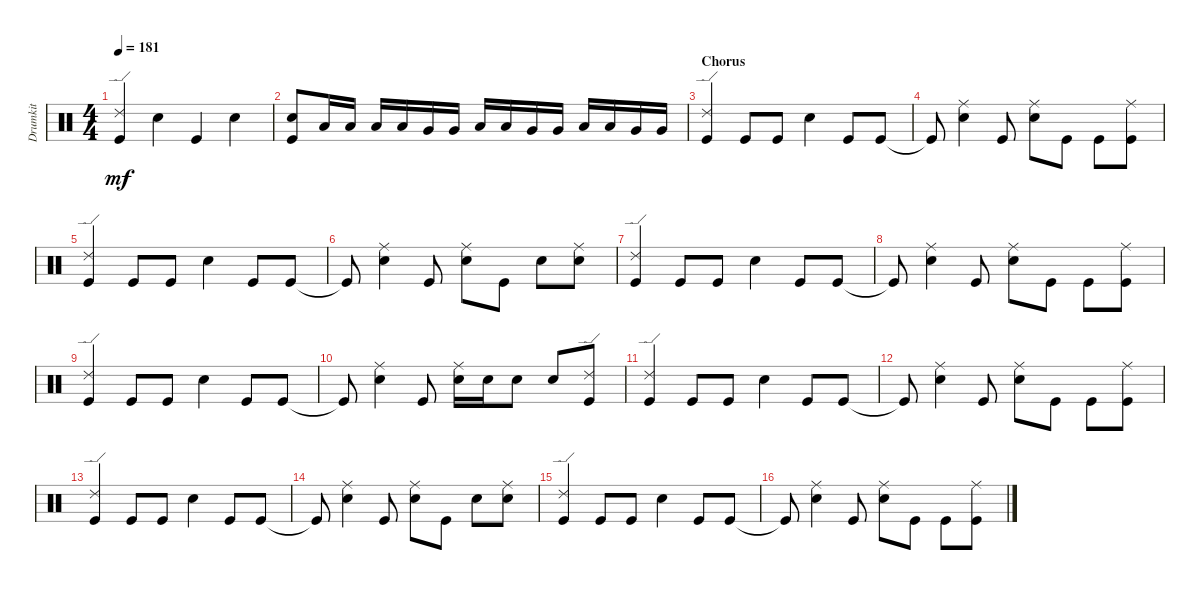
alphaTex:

\track ("Drumkit" "Drumkit") {instrument percussion}
\staff {score}
\articulation defaults
\ts (4 4)
\tempo 181
\clef neutral
\ks c
("Kick (hit)" "Ride (edge) 2").4{dy mf} "Snare (hit) 2".4 "Kick (hit)".4 "Snare (hit) 2".4 |
("Kick (hit)" "Snare (hit) 2").8 "Low Tom (hit)".16 "Low Tom (hit)".16 "Low Tom (hit)".16 "Low Tom (hit)".16 "Very Low Tom (hit)".16 "Very Low Tom (hit)".16 "Low Tom (hit)".16 "Low Tom (hit)".16 "Very Low Tom (hit)".16 "Very Low Tom (hit)".16 "Low Floor Tom (hit)".16 "Low Floor Tom (hit)".16 "Very Low Tom (hit)".16 "Very Low Tom (hit)".16 |
\section ("" "Chorus")
("Kick (hit)" "Ride (edge) 2").4 "Kick (hit)".8 "Kick (hit)".8 "Snare (hit) 2".4 "Kick (hit)".8 "Kick (hit)".8 |
"Kick (hit)"{t}.8 ("Snare (hit) 2" "Ride (middle)").4 "Kick (hit)".8 ("Snare (hit) 2" "Ride (middle)").8 "Kick (hit)".8 "Kick (hit)".8 ("Ride (middle)" "Kick (hit)").8 |
("Kick (hit)" "Ride (edge) 2").4 "Kick (hit)".8 "Kick (hit)".8 "Snare (hit) 2".4 "Kick (hit)".8 "Kick (hit)".8 |
"Kick (hit)"{t}.8 ("Snare (hit) 2" "Ride (middle)").4 "Kick (hit)".8 ("Snare (hit) 2" "Ride (middle)").8 "Kick (hit)".8 "Snare (hit) 2".8 ("Snare (hit) 2" "Ride (middle)").8 |
("Kick (hit)" "Ride (edge) 2").4 "Kick (hit)".8 "Kick (hit)".8 "Snare (hit) 2".4 "Kick (hit)".8 "Kick (hit)".8 |
"Kick (hit)"{t}.8 ("Snare (hit) 2" "Ride (middle)").4 "Kick (hit)".8 ("Snare (hit) 2" "Ride (middle)").8 "Kick (hit)".8 "Kick (hit)".8 ("Ride (middle)" "Kick (hit)").8 |
("Kick (hit)" "Ride (edge) 2").4 "Kick (hit)".8 "Kick (hit)".8 "Snare (hit) 2".4 "Kick (hit)".8 "Kick (hit)".8 |
"Kick (hit)"{t}.8 ("Snare (hit) 2" "Ride (middle)").4 "Kick (hit)".8 ("Snare (hit) 2" "Ride (middle)").16 "Snare (hit) 2".16 "Snare (hit) 2".8 "Snare (hit) 2".8 ("Kick (hit)" "Ride (edge) 2").8 |
("Kick (hit)" "Ride (edge) 2").4 "Kick (hit)".8 "Kick (hit)".8 "Snare (hit) 2".4 "Kick (hit)".8 "Kick (hit)".8 |
"Kick (hit)"{t}.8 ("Snare (hit) 2" "Ride (middle)").4 "Kick (hit)".8 ("Snare (hit) 2" "Ride (middle)").8 "Kick (hit)".8 "Kick (hit)".8 ("Ride (middle)" "Kick (hit)").8 |
("Kick (hit)" "Ride (edge) 2").4 "Kick (hit)".8 "Kick (hit)".8 "Snare (hit) 2".4 "Kick (hit)".8 "Kick (hit)".8 |
"Kick (hit)"{t}.8 ("Snare (hit) 2" "Ride (middle)").4 "Kick (hit)".8 ("Snare (hit) 2" "Ride (middle)").8 "Kick (hit)".8 "Snare (hit) 2".8 ("Snare (hit) 2" "Ride (middle)").8 |
("Kick (hit)" "Ride (edge) 2").4 "Kick (hit)".8 "Kick (hit)".8 "Snare (hit) 2".4 "Kick (hit)".8 "Kick (hit)".8 |
"Kick (hit)"{t}.8 ("Snare (hit) 2" "Ride (middle)").4 "Kick (hit)".8 ("Snare (hit) 2" "Ride (middle)").8 "Kick (hit)".8 "Kick (hit)".8 ("Ride (middle)" "Kick (hit)").8
